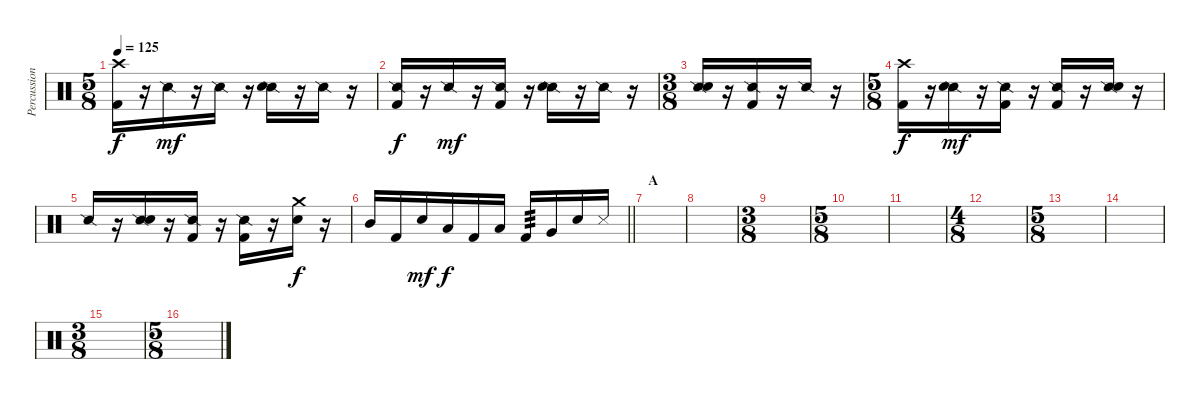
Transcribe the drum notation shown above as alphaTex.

\track ("Percussion" "Percussion") {instrument percussion}
\staff {score}
\articulation defaults
\ts (5 8)
\tempo 125
\clef neutral
\ks c
("Crash high (hit)" "Kick (hit) 2").16{dy f} r.16 "Snare (side stick) 2".16{dy mf} r.16 "Snare (side stick) 2".16 r.16 ("Snare (side stick) 2" "Snare (hit) 2").16 r.16 "Snare (side stick) 2".16 r.16 |
("Snare (side stick) 2" "Kick (hit) 2").16{dy f} r.16 "Snare (side stick) 2".16{dy mf} r.16 ("Snare (side stick) 2" "Kick (hit) 2").16 r.16 ("Snare (side stick) 2" "Snare (hit) 2").16 r.16 "Snare (side stick) 2".16 r.16 |
\ts (3 8)
("Snare (side stick) 2" "Snare (hit) 2").16 r.16 ("Snare (side stick) 2" "Kick (hit) 2").16 r.16 "Snare (side stick) 2".16 r.16 |
\ts (5 8)
("Crash high (hit)" "Kick (hit) 2").16{dy f} r.16 ("Snare (side stick) 2" "Snare (hit) 2").16{dy mf} r.16 ("Snare (side stick) 2" "Kick (hit) 2").16 r.16 ("Snare (side stick) 2" "Kick (hit) 2").16 r.16 ("Snare (side stick) 2" "Snare (hit) 2").16 r.16 |
"Snare (side stick) 2".16 r.16 ("Snare (side stick) 2" "Snare (hit) 2").16 r.16 ("Snare (side stick) 2" "Kick (hit) 2").16 r.16 ("Snare (side stick) 2" "Kick (hit) 2").16 r.16 ("Crash medium (hit)" "Snare (hit) 2").16{dy f} r.16 |
\barLineRight lightlight "Mid Tom (hit)".16 "Kick (hit) 2".16 "Snare (hit) 2".16{dy mf} "Low Tom (hit)".16{dy f} "Kick (hit) 2".16 "Low Tom (hit)".16 "Kick (hit) 2".16{tp 3} "Very Low Tom (hit)".16 "Snare (hit) 2".16 "Metronome (hit)".16
|
\section ("" "A")
|
|
\ts (3 8)
|
\ts (5 8)
|
|
\ts (4 8)
|
\ts (5 8)
|
|
\ts (3 8)
|
\ts (5 8)
